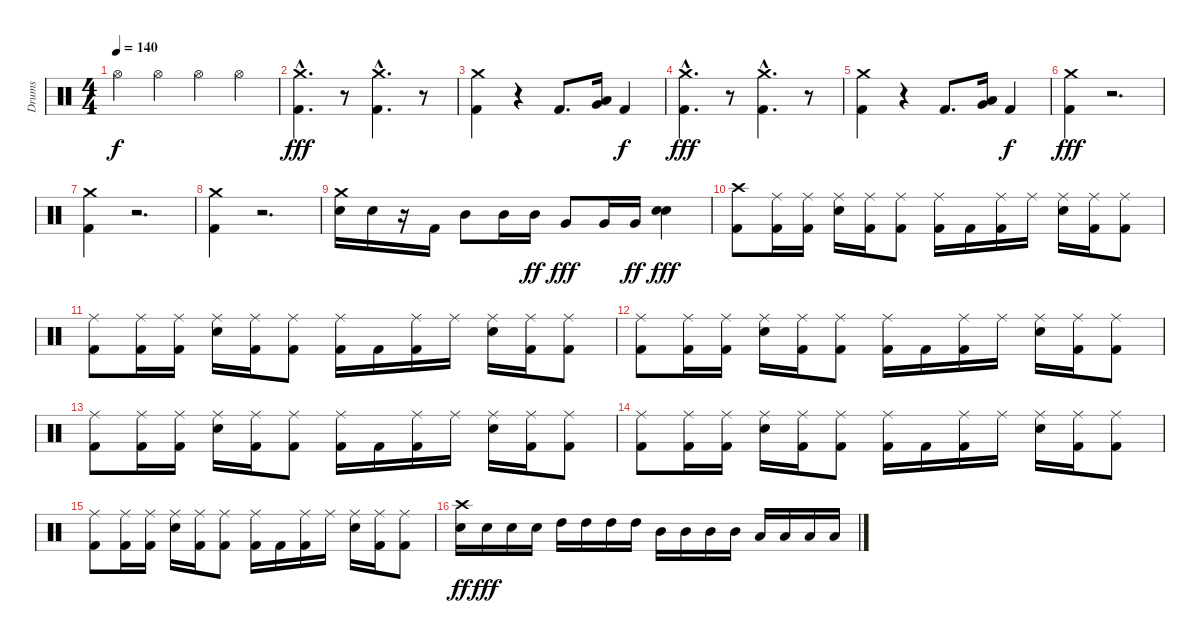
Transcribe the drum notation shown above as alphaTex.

\track ("Drums" "Drums") {instrument percussion}
\staff {score}
\articulation defaults
\ts (4 4)
\tempo 140
\clef neutral
\ks c "Hi-Hat (open)".4{dy f} "Hi-Hat (open)".4 "Hi-Hat (open)".4 "Hi-Hat (open)".4
|
("Kick (hit) 2" "Crash medium (hit)"{hac}).4{d dy fff} r.8 ("Kick (hit) 2" "Crash medium (hit)"{hac}).4{d} r.8 |
("Kick (hit) 2" "Crash medium (hit)").4 r.4 "Kick (hit) 2".8{d} ("Low Tom (hit)" "Very Low Tom (hit)").16 "Kick (hit) 2".4{dy f} |
("Kick (hit) 2" "Crash medium (hit)"{hac}).4{d dy fff} r.8 ("Kick (hit) 2" "Crash medium (hit)"{hac}).4{d} r.8 |
("Kick (hit) 2" "Crash medium (hit)").4 r.4 "Kick (hit) 2".8{d} ("Low Tom (hit)" "Very Low Tom (hit)").16 "Kick (hit) 2".4{dy f} |
("Kick (hit) 2" "Crash medium (hit)").4{dy fff} r.2{d} |
("Kick (hit) 2" "Crash medium (hit)").4 r.2{d} |
("Kick (hit) 2" "Crash medium (hit)").4 r.2{d} |
("Electric Snare (hit)" "Crash medium (hit)").16 "Electric Snare (hit)".16 r.16 "Kick (hit) 2".16 "Mid Tom (hit)".8 "Mid Tom (hit)".16 "Mid Tom (hit)".16{dy ff} "Very Low Tom (hit)".8{dy fff} "Very Low Tom (hit)".16 "Very Low Tom (hit)".16{dy ff} ("Snare (hit) 2" "Electric Snare (hit)").4{dy fff} |
("Kick (hit) 2" "Crash high (hit)").8 ("Ride (middle)" "Kick (hit) 2").16 ("Ride (middle)" "Kick (hit) 2").16 ("Ride (middle)" "Electric Snare (hit)").16 ("Ride (middle)" "Kick (hit) 2").16 ("Ride (middle)" "Kick (hit) 2").8 ("Ride (middle)" "Kick (hit) 2").16 "Kick (hit) 2".16 ("Ride (middle)" "Kick (hit) 2").16 "Ride (middle)".16 ("Ride (middle)" "Electric Snare (hit)").16 ("Ride (middle)" "Kick (hit) 2").16 ("Ride (middle)" "Kick (hit) 2").8 |
("Ride (middle)" "Kick (hit) 2").8 ("Ride (middle)" "Kick (hit) 2").16 ("Ride (middle)" "Kick (hit) 2").16 ("Ride (middle)" "Electric Snare (hit)").16 ("Ride (middle)" "Kick (hit) 2").16 ("Ride (middle)" "Kick (hit) 2").8 ("Ride (middle)" "Kick (hit) 2").16 "Kick (hit) 2".16 ("Ride (middle)" "Kick (hit) 2").16 "Ride (middle)".16 ("Ride (middle)" "Electric Snare (hit)").16 ("Ride (middle)" "Kick (hit) 2").16 ("Ride (middle)" "Kick (hit) 2").8 |
("Ride (middle)" "Kick (hit) 2").8 ("Ride (middle)" "Kick (hit) 2").16 ("Ride (middle)" "Kick (hit) 2").16 ("Ride (middle)" "Electric Snare (hit)").16 ("Ride (middle)" "Kick (hit) 2").16 ("Ride (middle)" "Kick (hit) 2").8 ("Ride (middle)" "Kick (hit) 2").16 "Kick (hit) 2".16 ("Ride (middle)" "Kick (hit) 2").16 "Ride (middle)".16 ("Ride (middle)" "Electric Snare (hit)").16 ("Ride (middle)" "Kick (hit) 2").16 ("Ride (middle)" "Kick (hit) 2").8 |
("Ride (middle)" "Kick (hit) 2").8 ("Ride (middle)" "Kick (hit) 2").16 ("Ride (middle)" "Kick (hit) 2").16 ("Ride (middle)" "Electric Snare (hit)").16 ("Ride (middle)" "Kick (hit) 2").16 ("Ride (middle)" "Kick (hit) 2").8 ("Ride (middle)" "Kick (hit) 2").16 "Kick (hit) 2".16 ("Ride (middle)" "Kick (hit) 2").16 "Ride (middle)".16 ("Ride (middle)" "Electric Snare (hit)").16 ("Ride (middle)" "Kick (hit) 2").16 ("Ride (middle)" "Kick (hit) 2").8 |
("Ride (middle)" "Kick (hit) 2").8 ("Ride (middle)" "Kick (hit) 2").16 ("Ride (middle)" "Kick (hit) 2").16 ("Ride (middle)" "Electric Snare (hit)").16 ("Ride (middle)" "Kick (hit) 2").16 ("Ride (middle)" "Kick (hit) 2").8 ("Ride (middle)" "Kick (hit) 2").16 "Kick (hit) 2".16 ("Ride (middle)" "Kick (hit) 2").16 "Ride (middle)".16 ("Ride (middle)" "Electric Snare (hit)").16 ("Ride (middle)" "Kick (hit) 2").16 ("Ride (middle)" "Kick (hit) 2").8 |
("Ride (middle)" "Kick (hit) 2").8 ("Ride (middle)" "Kick (hit) 2").16 ("Ride (middle)" "Kick (hit) 2").16 ("Ride (middle)" "Electric Snare (hit)").16 ("Ride (middle)" "Kick (hit) 2").16 ("Ride (middle)" "Kick (hit) 2").8 ("Ride (middle)" "Kick (hit) 2").16 "Kick (hit) 2".16 ("Ride (middle)" "Kick (hit) 2").16 "Ride (middle)".16 ("Ride (middle)" "Electric Snare (hit)").16 ("Ride (middle)" "Kick (hit) 2").16 ("Ride (middle)" "Kick (hit) 2").8 |
("Electric Snare (hit)" "Crash high (hit)").16{dy ff} "Electric Snare (hit)".16{dy fff} "Electric Snare (hit)".16 "Electric Snare (hit)".16 "High Tom (hit)".16 "High Tom (hit)".16 "High Tom (hit)".16 "High Tom (hit)".16 "Mid Tom (hit)".16 "Mid Tom (hit)".16 "Mid Tom (hit)".16 "Mid Tom (hit)".16 "Low Tom (hit)".16 "Low Tom (hit)".16 "Low Tom (hit)".16 "Low Tom (hit)".16
